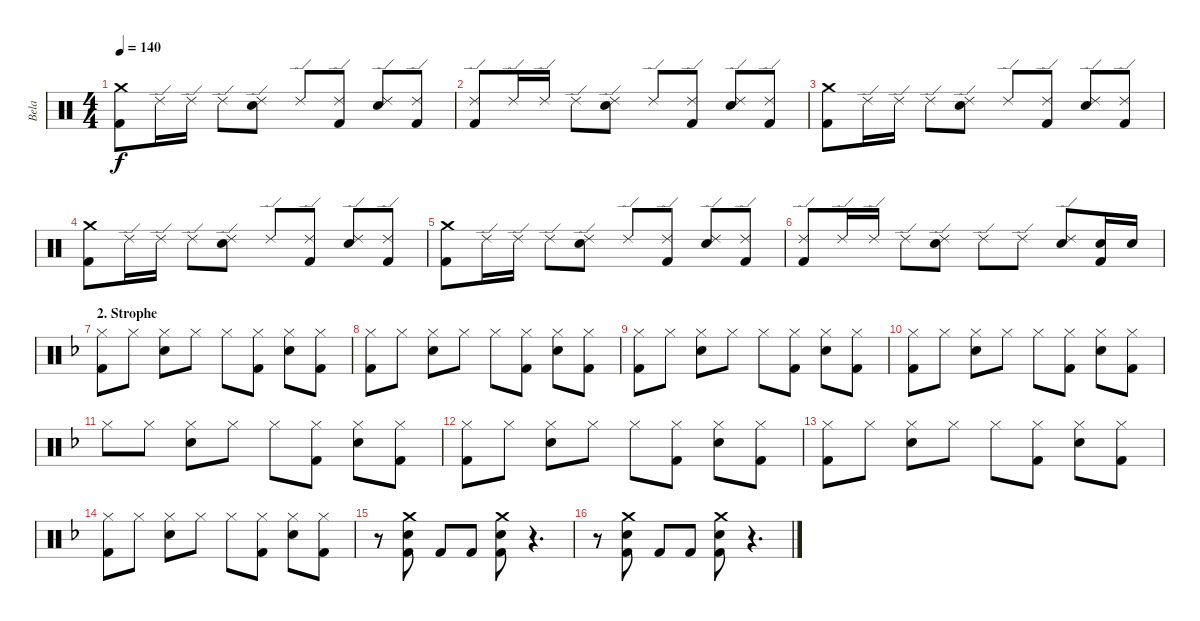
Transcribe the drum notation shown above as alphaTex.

\track ("Bela" "Bela") {instrument percussion}
\staff {score}
\articulation defaults
\ts (4 4)
\tempo 140
\clef neutral
\ks c
("Crash medium (hit)" "Kick (hit) 2").8{dy f} "Ride (edge) 2".16 "Ride (edge) 2".16 "Ride (edge) 2".8 ("Ride (edge) 2" "Snare (hit) 2").8 "Ride (edge) 2".8 ("Ride (edge) 2" "Kick (hit) 2").8 ("Ride (edge) 2" "Snare (hit) 2").8 ("Ride (edge) 2" "Kick (hit) 2").8 |
("Ride (edge) 2" "Kick (hit) 2").8 "Ride (edge) 2".16 "Ride (edge) 2".16 "Ride (edge) 2".8 ("Ride (edge) 2" "Snare (hit) 2").8 "Ride (edge) 2".8 ("Ride (edge) 2" "Kick (hit) 2").8 ("Ride (edge) 2" "Snare (hit) 2").8 ("Ride (edge) 2" "Kick (hit) 2").8 |
("Crash medium (hit)" "Kick (hit) 2").8 "Ride (edge) 2".16 "Ride (edge) 2".16 "Ride (edge) 2".8 ("Ride (edge) 2" "Snare (hit) 2").8 "Ride (edge) 2".8 ("Ride (edge) 2" "Kick (hit) 2").8 ("Ride (edge) 2" "Snare (hit) 2").8 ("Ride (edge) 2" "Kick (hit) 2").8 |
("Crash medium (hit)" "Kick (hit) 2").8 "Ride (edge) 2".16 "Ride (edge) 2".16 "Ride (edge) 2".8 ("Ride (edge) 2" "Snare (hit) 2").8 "Ride (edge) 2".8 ("Ride (edge) 2" "Kick (hit) 2").8 ("Ride (edge) 2" "Snare (hit) 2").8 ("Ride (edge) 2" "Kick (hit) 2").8 |
("Crash medium (hit)" "Kick (hit) 2").8 "Ride (edge) 2".16 "Ride (edge) 2".16 "Ride (edge) 2".8 ("Ride (edge) 2" "Snare (hit) 2").8 "Ride (edge) 2".8 ("Ride (edge) 2" "Kick (hit) 2").8 ("Ride (edge) 2" "Snare (hit) 2").8 ("Ride (edge) 2" "Kick (hit) 2").8 |
("Ride (edge) 2" "Kick (hit) 2").8 "Ride (edge) 2".16 "Ride (edge) 2".16 "Ride (edge) 2".8 ("Ride (edge) 2" "Snare (hit) 2").8 "Ride (edge) 2".8 "Ride (edge) 2".8 ("Ride (edge) 2" "Snare (hit) 2").8 ("Snare (hit) 2" "Kick (hit) 2").16 "Snare (hit) 2".16 |
\section ("" "2. Strophe")
\ks f
("Hi-Hat (closed)" "Kick (hit) 2").8 "Hi-Hat (closed)".8 ("Hi-Hat (closed)" "Snare (hit) 2").8 "Hi-Hat (closed)".8 "Hi-Hat (closed)".8 ("Hi-Hat (closed)" "Kick (hit) 2").8 ("Hi-Hat (closed)" "Snare (hit) 2").8 ("Hi-Hat (closed)" "Kick (hit) 2").8 |
("Hi-Hat (closed)" "Kick (hit) 2").8 "Hi-Hat (closed)".8 ("Hi-Hat (closed)" "Snare (hit) 2").8 "Hi-Hat (closed)".8 "Hi-Hat (closed)".8 ("Hi-Hat (closed)" "Kick (hit) 2").8 ("Hi-Hat (closed)" "Snare (hit) 2").8 ("Hi-Hat (closed)" "Kick (hit) 2").8 |
("Hi-Hat (closed)" "Kick (hit) 2").8 "Hi-Hat (closed)".8 ("Hi-Hat (closed)" "Snare (hit) 2").8 "Hi-Hat (closed)".8 "Hi-Hat (closed)".8 ("Hi-Hat (closed)" "Kick (hit) 2").8 ("Hi-Hat (closed)" "Snare (hit) 2").8 ("Hi-Hat (closed)" "Kick (hit) 2").8 |
("Hi-Hat (closed)" "Kick (hit) 2").8 "Hi-Hat (closed)".8 ("Hi-Hat (closed)" "Snare (hit) 2").8 "Hi-Hat (closed)".8 "Hi-Hat (closed)".8 ("Hi-Hat (closed)" "Kick (hit) 2").8 ("Hi-Hat (closed)" "Snare (hit) 2").8 ("Hi-Hat (closed)" "Kick (hit) 2").8 |
"Hi-Hat (closed)".8 "Hi-Hat (closed)".8 ("Hi-Hat (closed)" "Snare (hit) 2").8 "Hi-Hat (closed)".8 "Hi-Hat (closed)".8 ("Hi-Hat (closed)" "Kick (hit) 2").8 ("Hi-Hat (closed)" "Snare (hit) 2").8 ("Hi-Hat (closed)" "Kick (hit) 2").8 |
("Hi-Hat (closed)" "Kick (hit) 2").8 "Hi-Hat (closed)".8 ("Hi-Hat (closed)" "Snare (hit) 2").8 "Hi-Hat (closed)".8 "Hi-Hat (closed)".8 ("Hi-Hat (closed)" "Kick (hit) 2").8 ("Hi-Hat (closed)" "Snare (hit) 2").8 ("Hi-Hat (closed)" "Kick (hit) 2").8 |
("Hi-Hat (closed)" "Kick (hit) 2").8 "Hi-Hat (closed)".8 ("Hi-Hat (closed)" "Snare (hit) 2").8 "Hi-Hat (closed)".8 "Hi-Hat (closed)".8 ("Hi-Hat (closed)" "Kick (hit) 2").8 ("Hi-Hat (closed)" "Snare (hit) 2").8 ("Hi-Hat (closed)" "Kick (hit) 2").8 |
("Hi-Hat (closed)" "Kick (hit) 2").8 "Hi-Hat (closed)".8 ("Hi-Hat (closed)" "Snare (hit) 2").8 "Hi-Hat (closed)".8 "Hi-Hat (closed)".8 ("Hi-Hat (closed)" "Kick (hit) 2").8 ("Hi-Hat (closed)" "Snare (hit) 2").8 ("Hi-Hat (closed)" "Kick (hit) 2").8 |
r.8 ("Crash medium (hit)" "Snare (hit) 2" "Kick (hit) 2").8 "Kick (hit) 2".8 "Kick (hit) 2".8 ("Crash medium (hit)" "Snare (hit) 2" "Kick (hit) 2").8 r.4{d} |
r.8 ("Crash medium (hit)" "Snare (hit) 2" "Kick (hit) 2").8 "Kick (hit) 2".8 "Kick (hit) 2".8 ("Crash medium (hit)" "Snare (hit) 2" "Kick (hit) 2").8 r.4{d}
